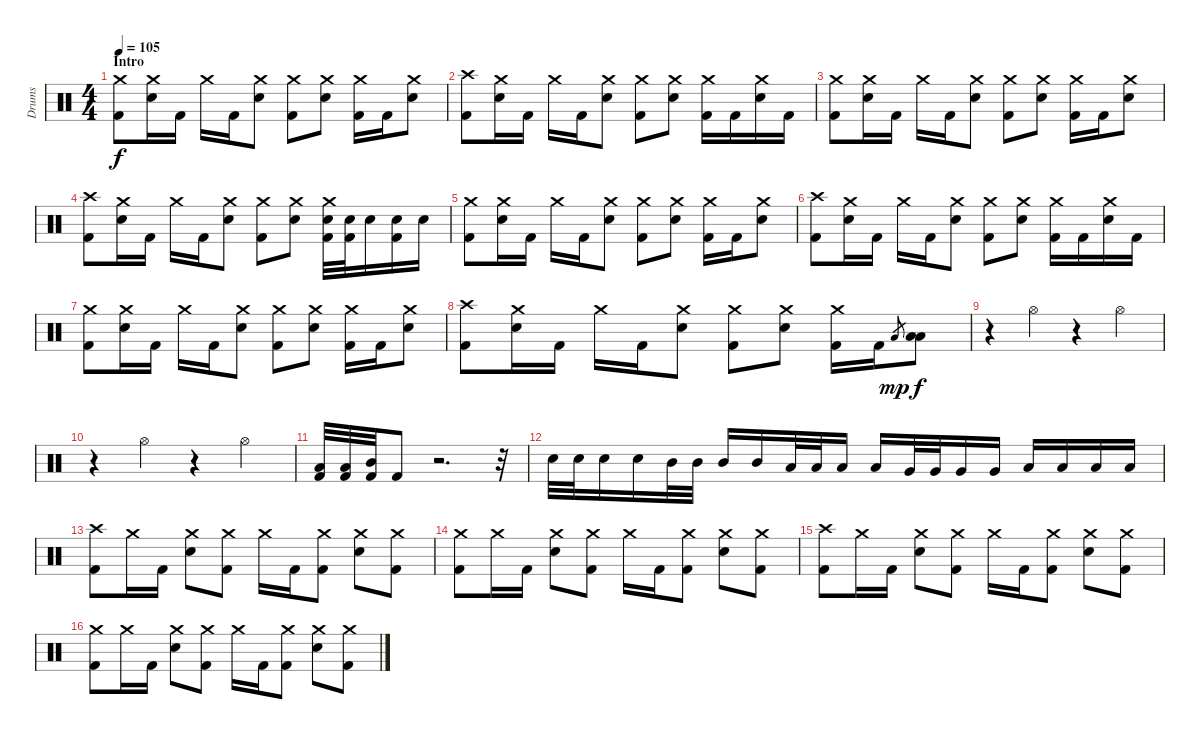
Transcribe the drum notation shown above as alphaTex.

\track ("Drums" "Drums") {instrument percussion}
\staff {score}
\articulation defaults
\ts (4 4)
\section ("" "Intro")
\tempo 105
\clef neutral
\ks c
("Crash medium (hit)" "Kick (hit) 2").8{dy f} ("Crash medium (hit)" "Electric Snare (hit)").16 "Kick (hit) 2".16 "Crash medium (hit)".16 "Kick (hit) 2".16 ("Crash medium (hit)" "Electric Snare (hit)").8 ("Crash medium (hit)" "Kick (hit) 2").8 ("Crash medium (hit)" "Electric Snare (hit)").8 ("Crash medium (hit)" "Kick (hit) 2").16 "Kick (hit) 2".16 ("Crash medium (hit)" "Electric Snare (hit)").8 |
("Crash high (hit)" "Kick (hit) 2").8 ("Crash medium (hit)" "Electric Snare (hit)").16 "Kick (hit) 2".16 "Crash medium (hit)".16 "Kick (hit) 2".16 ("Crash medium (hit)" "Electric Snare (hit)").8 ("Crash medium (hit)" "Kick (hit) 2").8 ("Crash medium (hit)" "Electric Snare (hit)").8 ("Crash medium (hit)" "Kick (hit) 2").16 "Kick (hit) 2".16 ("Crash medium (hit)" "Electric Snare (hit)").16 "Kick (hit) 2".16 |
("Crash medium (hit)" "Kick (hit) 2").8 ("Crash medium (hit)" "Electric Snare (hit)").16 "Kick (hit) 2".16 "Crash medium (hit)".16 "Kick (hit) 2".16 ("Crash medium (hit)" "Electric Snare (hit)").8 ("Crash medium (hit)" "Kick (hit) 2").8 ("Crash medium (hit)" "Electric Snare (hit)").8 ("Crash medium (hit)" "Kick (hit) 2").16 "Kick (hit) 2".16 ("Crash medium (hit)" "Electric Snare (hit)").8 |
("Crash high (hit)" "Kick (hit) 2").8 ("Crash medium (hit)" "Electric Snare (hit)").16 "Kick (hit) 2".16 "Crash medium (hit)".16 "Kick (hit) 2".16 ("Crash medium (hit)" "Electric Snare (hit)").8 ("Crash medium (hit)" "Kick (hit) 2").8 ("Crash medium (hit)" "Electric Snare (hit)").8 ("Crash medium (hit)" "Electric Snare (hit)" "Kick (hit) 2").32 ("Electric Snare (hit)" "Kick (hit) 2").32 "Electric Snare (hit)".16 ("Electric Snare (hit)" "Kick (hit) 2").16 "Electric Snare (hit)".16 |
("Crash medium (hit)" "Kick (hit) 2").8 ("Crash medium (hit)" "Electric Snare (hit)").16 "Kick (hit) 2".16 "Crash medium (hit)".16 "Kick (hit) 2".16 ("Crash medium (hit)" "Electric Snare (hit)").8 ("Crash medium (hit)" "Kick (hit) 2").8 ("Crash medium (hit)" "Electric Snare (hit)").8 ("Crash medium (hit)" "Kick (hit) 2").16 "Kick (hit) 2".16 ("Crash medium (hit)" "Electric Snare (hit)").8 |
("Crash high (hit)" "Kick (hit) 2").8 ("Crash medium (hit)" "Electric Snare (hit)").16 "Kick (hit) 2".16 "Crash medium (hit)".16 "Kick (hit) 2".16 ("Crash medium (hit)" "Electric Snare (hit)").8 ("Crash medium (hit)" "Kick (hit) 2").8 ("Crash medium (hit)" "Electric Snare (hit)").8 ("Crash medium (hit)" "Kick (hit) 2").16 "Kick (hit) 2".16 ("Crash medium (hit)" "Electric Snare (hit)").16 "Kick (hit) 2".16 |
("Crash medium (hit)" "Kick (hit) 2").8 ("Crash medium (hit)" "Electric Snare (hit)").16 "Kick (hit) 2".16 "Crash medium (hit)".16 "Kick (hit) 2".16 ("Crash medium (hit)" "Electric Snare (hit)").8 ("Crash medium (hit)" "Kick (hit) 2").8 ("Crash medium (hit)" "Electric Snare (hit)").8 ("Crash medium (hit)" "Kick (hit) 2").16 "Kick (hit) 2".16 ("Crash medium (hit)" "Electric Snare (hit)").8 |
("Crash high (hit)" "Kick (hit) 2").8 ("Crash medium (hit)" "Electric Snare (hit)").16 "Kick (hit) 2".16 "Crash medium (hit)".16 "Kick (hit) 2".16 ("Crash medium (hit)" "Electric Snare (hit)").8 ("Crash medium (hit)" "Kick (hit) 2").8 ("Crash medium (hit)" "Electric Snare (hit)").8 ("Crash medium (hit)" "Kick (hit) 2").16 "Kick (hit) 2".16 "Low Floor Tom (hit)".8{gr dy mp} ("Low Tom (hit)" "Low Floor Tom (hit)").8{dy f} |
r.4 "Hi-Hat (open)".4 r.4 "Hi-Hat (open)".4 |
r.4 "Hi-Hat (open)".4 r.4 "Hi-Hat (open)".4 |
("Low Floor Tom (hit)" "Kick (hit) 2").32 ("Low Tom (hit)" "Kick (hit) 2").32 ("Mid Tom (hit)" "Kick (hit) 2").32 "Kick (hit) 2".8 r.2{d} r.32 |
"Electric Snare (hit)".32 "Electric Snare (hit)".32 "Electric Snare (hit)".16 "Electric Snare (hit)".16 "Mid Tom (hit)".32 "Mid Tom (hit)".32 "Mid Tom (hit)".16 "Mid Tom (hit)".16 "Low Tom (hit)".32 "Low Tom (hit)".32 "Low Tom (hit)".16 "Low Tom (hit)".16 "Very Low Tom (hit)".32 "Very Low Tom (hit)".32 "Very Low Tom (hit)".16 "Very Low Tom (hit)".16 "Low Floor Tom (hit)".16 "Low Floor Tom (hit)".16 "Low Floor Tom (hit)".16 "Low Floor Tom (hit)".16 |
("Crash high (hit)" "Kick (hit) 2").8 "Crash medium (hit)".16 "Kick (hit) 2".16 ("Crash medium (hit)" "Electric Snare (hit)").8 ("Crash medium (hit)" "Kick (hit) 2").8 "Crash medium (hit)".16 "Kick (hit) 2".16 ("Crash medium (hit)" "Kick (hit) 2").8 ("Crash medium (hit)" "Electric Snare (hit)").8 ("Crash medium (hit)" "Kick (hit) 2").8 |
("Crash medium (hit)" "Kick (hit) 2").8 "Crash medium (hit)".16 "Kick (hit) 2".16 ("Crash medium (hit)" "Electric Snare (hit)").8 ("Crash medium (hit)" "Kick (hit) 2").8 "Crash medium (hit)".16 "Kick (hit) 2".16 ("Crash medium (hit)" "Kick (hit) 2").8 ("Crash medium (hit)" "Electric Snare (hit)").8 ("Crash medium (hit)" "Kick (hit) 2").8 |
("Crash high (hit)" "Kick (hit) 2").8 "Crash medium (hit)".16 "Kick (hit) 2".16 ("Crash medium (hit)" "Electric Snare (hit)").8 ("Crash medium (hit)" "Kick (hit) 2").8 "Crash medium (hit)".16 "Kick (hit) 2".16 ("Crash medium (hit)" "Kick (hit) 2").8 ("Crash medium (hit)" "Electric Snare (hit)").8 ("Crash medium (hit)" "Kick (hit) 2").8 |
("Crash medium (hit)" "Kick (hit) 2").8 "Crash medium (hit)".16 "Kick (hit) 2".16 ("Crash medium (hit)" "Electric Snare (hit)").8 ("Crash medium (hit)" "Kick (hit) 2").8 "Crash medium (hit)".16 "Kick (hit) 2".16 ("Crash medium (hit)" "Kick (hit) 2").8 ("Crash medium (hit)" "Electric Snare (hit)").8 ("Crash medium (hit)" "Kick (hit) 2").8
